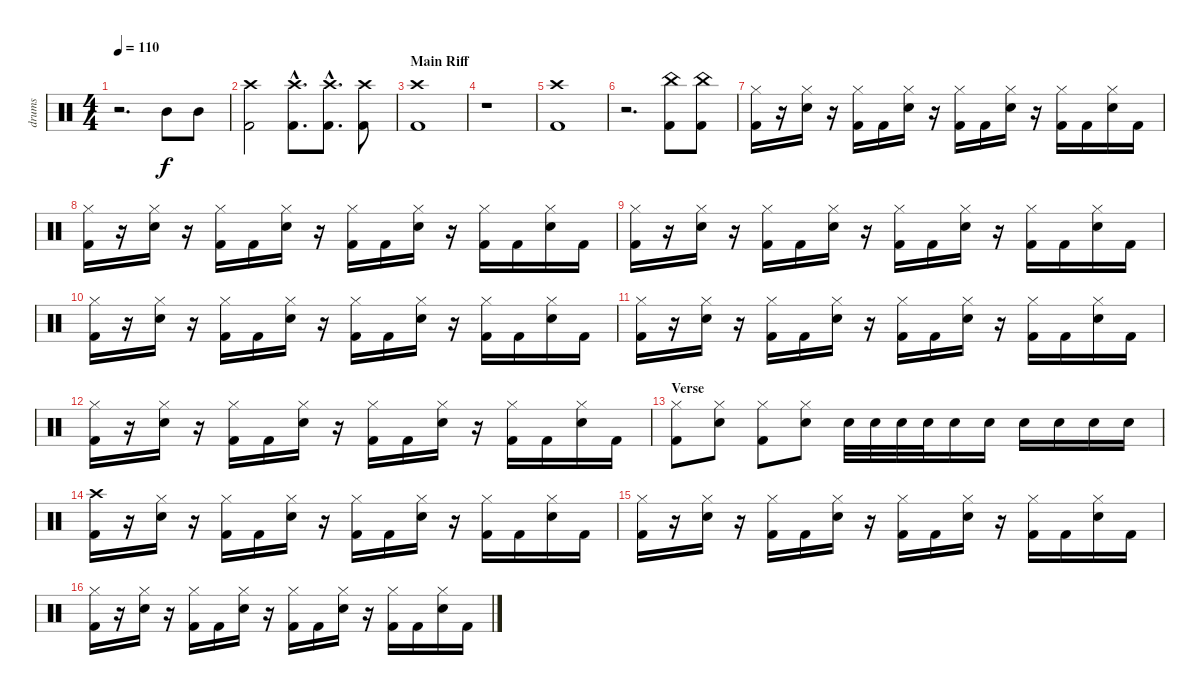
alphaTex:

\track ("drums" "drums") {instrument percussion}
\staff {score}
\articulation defaults
\ts (4 4)
\tempo 110
\clef neutral
\ks c
r.2{d dy f} "Mid Tom (hit)".8 "Mid Tom (hit)".8 |
("Crash high (hit)" "Kick (hit) 2").2 ("Crash high (hit)"{hac} "Kick (hit) 2"{hac}).8{d} ("Crash high (hit)"{hac} "Kick (hit) 2"{hac}).8{d} ("Crash high (hit)" "Kick (hit) 2").8 |
\section ("" "Main Riff")
("Crash high (hit)" "Kick (hit) 2").1 |
r.1 |
("Crash high (hit)" "Kick (hit) 2").1 |
r.2{d} ("China (hit)" "Kick (hit) 2").8 ("China (hit)" "Kick (hit) 2").8 |
("Hi-Hat (closed)" "Kick (hit) 2").16 r.16 ("Hi-Hat (closed)" "Snare (hit) 2").16 r.16 ("Hi-Hat (closed)" "Kick (hit) 2").16 "Kick (hit) 2".16 ("Hi-Hat (closed)" "Snare (hit) 2").16 r.16 ("Hi-Hat (closed)" "Kick (hit) 2").16 "Kick (hit) 2".16 ("Hi-Hat (closed)" "Snare (hit) 2").16 r.16 ("Hi-Hat (closed)" "Kick (hit) 2").16 "Kick (hit) 2".16 ("Hi-Hat (closed)" "Snare (hit) 2").16 "Kick (hit) 2".16 |
("Hi-Hat (closed)" "Kick (hit) 2").16 r.16 ("Hi-Hat (closed)" "Snare (hit) 2").16 r.16 ("Hi-Hat (closed)" "Kick (hit) 2").16 "Kick (hit) 2".16 ("Hi-Hat (closed)" "Snare (hit) 2").16 r.16 ("Hi-Hat (closed)" "Kick (hit) 2").16 "Kick (hit) 2".16 ("Hi-Hat (closed)" "Snare (hit) 2").16 r.16 ("Hi-Hat (closed)" "Kick (hit) 2").16 "Kick (hit) 2".16 ("Hi-Hat (closed)" "Snare (hit) 2").16 "Kick (hit) 2".16 |
("Hi-Hat (closed)" "Kick (hit) 2").16 r.16 ("Hi-Hat (closed)" "Snare (hit) 2").16 r.16 ("Hi-Hat (closed)" "Kick (hit) 2").16 "Kick (hit) 2".16 ("Hi-Hat (closed)" "Snare (hit) 2").16 r.16 ("Hi-Hat (closed)" "Kick (hit) 2").16 "Kick (hit) 2".16 ("Hi-Hat (closed)" "Snare (hit) 2").16 r.16 ("Hi-Hat (closed)" "Kick (hit) 2").16 "Kick (hit) 2".16 ("Hi-Hat (closed)" "Snare (hit) 2").16 "Kick (hit) 2".16 |
("Hi-Hat (closed)" "Kick (hit) 2").16 r.16 ("Hi-Hat (closed)" "Snare (hit) 2").16 r.16 ("Hi-Hat (closed)" "Kick (hit) 2").16 "Kick (hit) 2".16 ("Hi-Hat (closed)" "Snare (hit) 2").16 r.16 ("Hi-Hat (closed)" "Kick (hit) 2").16 "Kick (hit) 2".16 ("Hi-Hat (closed)" "Snare (hit) 2").16 r.16 ("Hi-Hat (closed)" "Kick (hit) 2").16 "Kick (hit) 2".16 ("Hi-Hat (closed)" "Snare (hit) 2").16 "Kick (hit) 2".16 |
("Hi-Hat (closed)" "Kick (hit) 2").16 r.16 ("Hi-Hat (closed)" "Snare (hit) 2").16 r.16 ("Hi-Hat (closed)" "Kick (hit) 2").16 "Kick (hit) 2".16 ("Hi-Hat (closed)" "Snare (hit) 2").16 r.16 ("Hi-Hat (closed)" "Kick (hit) 2").16 "Kick (hit) 2".16 ("Hi-Hat (closed)" "Snare (hit) 2").16 r.16 ("Hi-Hat (closed)" "Kick (hit) 2").16 "Kick (hit) 2".16 ("Hi-Hat (closed)" "Snare (hit) 2").16 "Kick (hit) 2".16 |
("Hi-Hat (closed)" "Kick (hit) 2").16 r.16 ("Hi-Hat (closed)" "Snare (hit) 2").16 r.16 ("Hi-Hat (closed)" "Kick (hit) 2").16 "Kick (hit) 2".16 ("Hi-Hat (closed)" "Snare (hit) 2").16 r.16 ("Hi-Hat (closed)" "Kick (hit) 2").16 "Kick (hit) 2".16 ("Hi-Hat (closed)" "Snare (hit) 2").16 r.16 ("Hi-Hat (closed)" "Kick (hit) 2").16 "Kick (hit) 2".16 ("Hi-Hat (closed)" "Snare (hit) 2").16 "Kick (hit) 2".16 |
\section ("" "Verse")
("Hi-Hat (closed)" "Kick (hit) 2").8 ("Hi-Hat (closed)" "Snare (hit) 2").8 ("Hi-Hat (closed)" "Kick (hit) 2").8 ("Hi-Hat (closed)" "Snare (hit) 2").8 "Snare (hit) 2".32 "Snare (hit) 2".32 "Snare (hit) 2".32 "Snare (hit) 2".32 "Snare (hit) 2".16 "Snare (hit) 2".16 "Snare (hit) 2".16 "Snare (hit) 2".16 "Snare (hit) 2".16 "Snare (hit) 2".16 |
("Crash high (hit)" "Kick (hit) 2").16 r.16 ("Hi-Hat (closed)" "Snare (hit) 2").16 r.16 ("Hi-Hat (closed)" "Kick (hit) 2").16 "Kick (hit) 2".16 ("Hi-Hat (closed)" "Snare (hit) 2").16 r.16 ("Hi-Hat (closed)" "Kick (hit) 2").16 "Kick (hit) 2".16 ("Hi-Hat (closed)" "Snare (hit) 2").16 r.16 ("Hi-Hat (closed)" "Kick (hit) 2").16 "Kick (hit) 2".16 ("Hi-Hat (closed)" "Snare (hit) 2").16 "Kick (hit) 2".16 |
("Hi-Hat (closed)" "Kick (hit) 2").16 r.16 ("Hi-Hat (closed)" "Snare (hit) 2").16 r.16 ("Hi-Hat (closed)" "Kick (hit) 2").16 "Kick (hit) 2".16 ("Hi-Hat (closed)" "Snare (hit) 2").16 r.16 ("Hi-Hat (closed)" "Kick (hit) 2").16 "Kick (hit) 2".16 ("Hi-Hat (closed)" "Snare (hit) 2").16 r.16 ("Hi-Hat (closed)" "Kick (hit) 2").16 "Kick (hit) 2".16 ("Hi-Hat (closed)" "Snare (hit) 2").16 "Kick (hit) 2".16 |
("Hi-Hat (closed)" "Kick (hit) 2").16 r.16 ("Hi-Hat (closed)" "Snare (hit) 2").16 r.16 ("Hi-Hat (closed)" "Kick (hit) 2").16 "Kick (hit) 2".16 ("Hi-Hat (closed)" "Snare (hit) 2").16 r.16 ("Hi-Hat (closed)" "Kick (hit) 2").16 "Kick (hit) 2".16 ("Hi-Hat (closed)" "Snare (hit) 2").16 r.16 ("Hi-Hat (closed)" "Kick (hit) 2").16 "Kick (hit) 2".16 ("Hi-Hat (closed)" "Snare (hit) 2").16 "Kick (hit) 2".16
